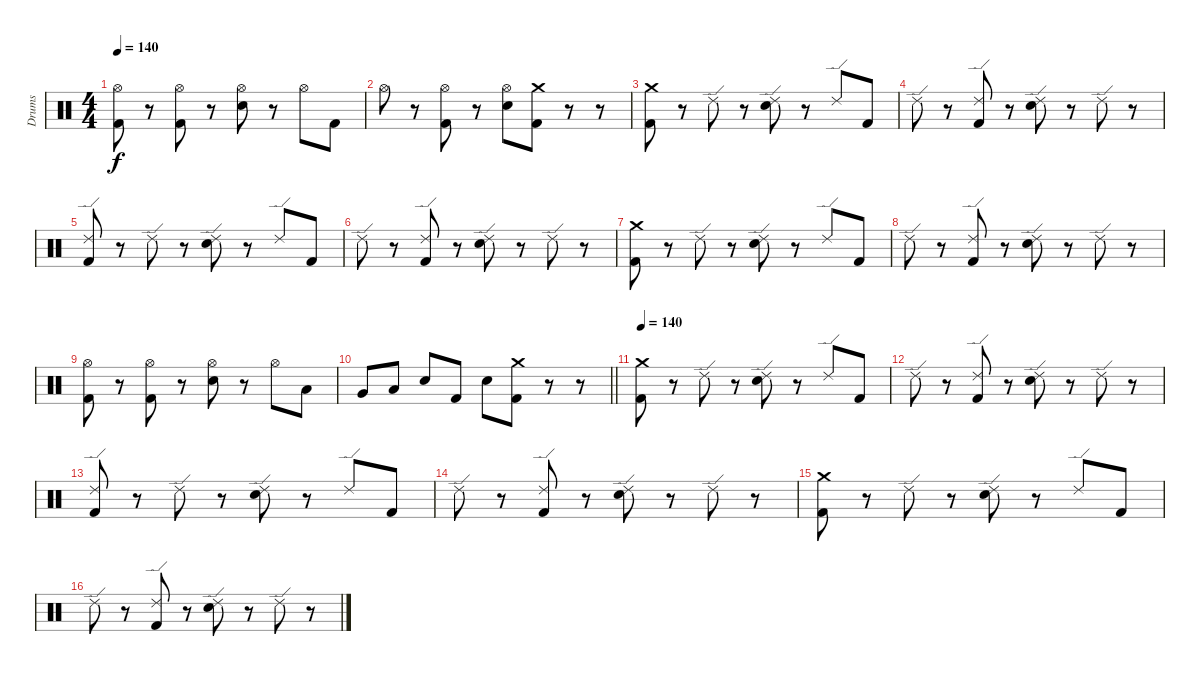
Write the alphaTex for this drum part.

\track ("Drums" "Drums") {instrument percussion}
\staff {score}
\articulation defaults
\ts (4 4)
\tempo 140
\clef neutral
\ks c
("Hi-Hat (open)" "Kick (hit) 2").8{dy f} r.8 ("Hi-Hat (open)" "Kick (hit) 2").8 r.8 ("Hi-Hat (open)" "Electric Snare (hit)").8 r.8 "Hi-Hat (open)".8 "Kick (hit) 2".8 |
"Hi-Hat (open)".8 r.8 ("Hi-Hat (open)" "Kick (hit) 2").8 r.8 ("Hi-Hat (open)" "Electric Snare (hit)").8 ("Crash medium (hit)" "Kick (hit) 2").8 r.8 r.8 |
("Crash medium (hit)" "Kick (hit) 2").8 r.8 "Ride (edge) 2".8 r.8 ("Ride (edge) 2" "Electric Snare (hit)").8 r.8 "Ride (edge) 2".8 "Kick (hit) 2".8 |
"Ride (edge) 2".8 r.8 ("Ride (edge) 2" "Kick (hit) 2").8 r.8 ("Ride (edge) 2" "Electric Snare (hit)").8 r.8 "Ride (edge) 2".8 r.8 |
("Ride (edge) 2" "Kick (hit) 2").8 r.8 "Ride (edge) 2".8 r.8 ("Ride (edge) 2" "Electric Snare (hit)").8 r.8 "Ride (edge) 2".8 "Kick (hit) 2".8 |
"Ride (edge) 2".8 r.8 ("Ride (edge) 2" "Kick (hit) 2").8 r.8 ("Ride (edge) 2" "Electric Snare (hit)").8 r.8 "Ride (edge) 2".8 r.8 |
("Crash medium (hit)" "Kick (hit) 2").8 r.8 "Ride (edge) 2".8 r.8 ("Ride (edge) 2" "Electric Snare (hit)").8 r.8 "Ride (edge) 2".8 "Kick (hit) 2".8 |
"Ride (edge) 2".8 r.8 ("Ride (edge) 2" "Kick (hit) 2").8 r.8 ("Ride (edge) 2" "Electric Snare (hit)").8 r.8 "Ride (edge) 2".8 r.8 |
("Hi-Hat (open)" "Kick (hit) 2").8 r.8 ("Hi-Hat (open)" "Kick (hit) 2").8 r.8 ("Hi-Hat (open)" "Electric Snare (hit)").8 r.8 "Hi-Hat (open)".8 "Low Tom (hit)".8 |
\barLineRight lightlight "Very Low Tom (hit)".8 "Low Tom (hit)".8 "Electric Snare (hit)".8 "Kick (hit) 2".8 "Electric Snare (hit)".8
("Crash medium (hit)" "Kick (hit) 2").8 r.8 r.8 |
\tempo 140
("Crash medium (hit)" "Kick (hit) 2").8 r.8 "Ride (edge) 2".8 r.8 ("Ride (edge) 2" "Electric Snare (hit)").8 r.8 "Ride (edge) 2".8 "Kick (hit) 2".8 |
"Ride (edge) 2".8 r.8 ("Ride (edge) 2" "Kick (hit) 2").8 r.8 ("Ride (edge) 2" "Electric Snare (hit)").8 r.8 "Ride (edge) 2".8 r.8 |
("Ride (edge) 2" "Kick (hit) 2").8 r.8 "Ride (edge) 2".8 r.8 ("Ride (edge) 2" "Electric Snare (hit)").8 r.8 "Ride (edge) 2".8 "Kick (hit) 2".8 |
"Ride (edge) 2".8 r.8 ("Ride (edge) 2" "Kick (hit) 2").8 r.8 ("Ride (edge) 2" "Electric Snare (hit)").8 r.8 "Ride (edge) 2".8 r.8 |
("Crash medium (hit)" "Kick (hit) 2").8 r.8 "Ride (edge) 2".8 r.8 ("Ride (edge) 2" "Electric Snare (hit)").8 r.8 "Ride (edge) 2".8 "Kick (hit) 2".8 |
"Ride (edge) 2".8 r.8 ("Ride (edge) 2" "Kick (hit) 2").8 r.8 ("Ride (edge) 2" "Electric Snare (hit)").8 r.8 "Ride (edge) 2".8 r.8
